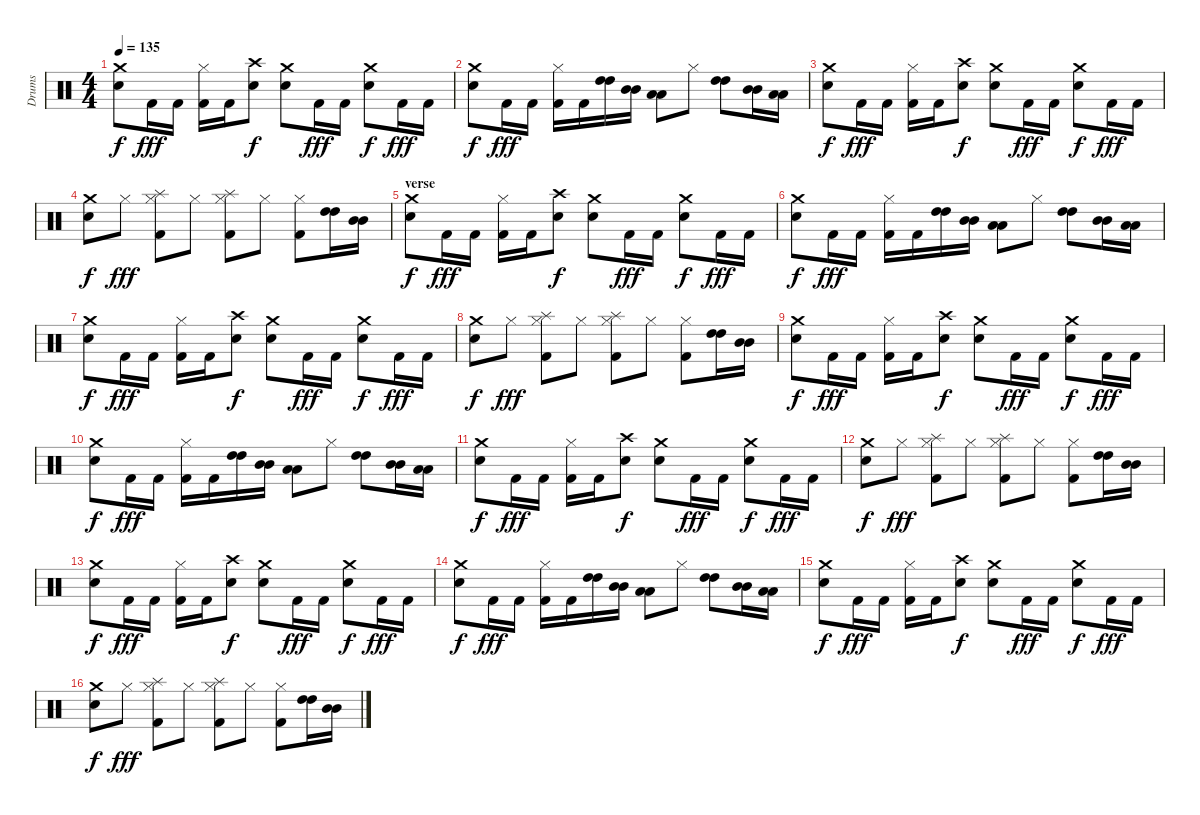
\track ("Drums" "Drums") {instrument percussion}
\staff {score}
\articulation defaults
\ts (4 4)
\tempo 135
\clef neutral
\ks c
("Crash medium (hit)" "Electric Snare (hit)").8{dy f} "Kick (hit) 2".16{dy fff} "Kick (hit) 2".16 ("Hi-Hat (closed)" "Kick (hit) 2").16 "Kick (hit) 2".16 ("Crash high (hit)" "Electric Snare (hit)").8{dy f} ("Crash medium (hit)" "Electric Snare (hit)").8 "Kick (hit) 2".16{dy fff} "Kick (hit) 2".16 ("Crash medium (hit)" "Electric Snare (hit)").8{dy f} "Kick (hit) 2".16{dy fff} "Kick (hit) 2".16 |
("Crash medium (hit)" "Electric Snare (hit)").8{dy f} "Kick (hit) 2".16{dy fff} "Kick (hit) 2".16 ("Hi-Hat (closed)" "Kick (hit) 2").16 "Kick (hit) 2".16 ("High Tom (hit)" "High Tom (hit)").16 ("Mid Tom (hit)" "Mid Tom (hit)").16 ("Low Tom (hit)" "Low Tom (hit)").8 "Hi-Hat (closed)".8 ("High Tom (hit)" "High Tom (hit)").8 ("Mid Tom (hit)" "Mid Tom (hit)").16 ("Low Tom (hit)" "Low Tom (hit)").16 |
("Crash medium (hit)" "Electric Snare (hit)").8{dy f} "Kick (hit) 2".16{dy fff} "Kick (hit) 2".16 ("Hi-Hat (closed)" "Kick (hit) 2").16 "Kick (hit) 2".16 ("Crash high (hit)" "Electric Snare (hit)").8{dy f} ("Crash medium (hit)" "Electric Snare (hit)").8 "Kick (hit) 2".16{dy fff} "Kick (hit) 2".16 ("Crash medium (hit)" "Electric Snare (hit)").8{dy f} "Kick (hit) 2".16{dy fff} "Kick (hit) 2".16 |
("Crash medium (hit)" "Electric Snare (hit)").8{dy f} "Hi-Hat (closed)".8{dy fff} ("Splash (hit)" "Kick (hit) 2" "Hi-Hat (closed)").8 "Hi-Hat (closed)".8 ("Splash (hit)" "Kick (hit) 2" "Hi-Hat (closed)").8 "Hi-Hat (closed)".8 ("Kick (hit) 2" "Hi-Hat (closed)").8 ("High Tom (hit)" "High Tom (hit)").16 ("Mid Tom (hit)" "Mid Tom (hit)").16 |
\section ("" "verse")
("Crash medium (hit)" "Electric Snare (hit)").8{dy f} "Kick (hit) 2".16{dy fff} "Kick (hit) 2".16 ("Hi-Hat (closed)" "Kick (hit) 2").16 "Kick (hit) 2".16 ("Crash high (hit)" "Electric Snare (hit)").8{dy f} ("Crash medium (hit)" "Electric Snare (hit)").8 "Kick (hit) 2".16{dy fff} "Kick (hit) 2".16 ("Crash medium (hit)" "Electric Snare (hit)").8{dy f} "Kick (hit) 2".16{dy fff} "Kick (hit) 2".16 |
("Crash medium (hit)" "Electric Snare (hit)").8{dy f} "Kick (hit) 2".16{dy fff} "Kick (hit) 2".16 ("Hi-Hat (closed)" "Kick (hit) 2").16 "Kick (hit) 2".16 ("High Tom (hit)" "High Tom (hit)").16 ("Mid Tom (hit)" "Mid Tom (hit)").16 ("Low Tom (hit)" "Low Tom (hit)").8 "Hi-Hat (closed)".8 ("High Tom (hit)" "High Tom (hit)").8 ("Mid Tom (hit)" "Mid Tom (hit)").16 ("Low Tom (hit)" "Low Tom (hit)").16 |
("Crash medium (hit)" "Electric Snare (hit)").8{dy f} "Kick (hit) 2".16{dy fff} "Kick (hit) 2".16 ("Hi-Hat (closed)" "Kick (hit) 2").16 "Kick (hit) 2".16 ("Crash high (hit)" "Electric Snare (hit)").8{dy f} ("Crash medium (hit)" "Electric Snare (hit)").8 "Kick (hit) 2".16{dy fff} "Kick (hit) 2".16 ("Crash medium (hit)" "Electric Snare (hit)").8{dy f} "Kick (hit) 2".16{dy fff} "Kick (hit) 2".16 |
("Crash medium (hit)" "Electric Snare (hit)").8{dy f} "Hi-Hat (closed)".8{dy fff} ("Splash (hit)" "Kick (hit) 2" "Hi-Hat (closed)").8 "Hi-Hat (closed)".8 ("Splash (hit)" "Kick (hit) 2" "Hi-Hat (closed)").8 "Hi-Hat (closed)".8 ("Kick (hit) 2" "Hi-Hat (closed)").8 ("High Tom (hit)" "High Tom (hit)").16 ("Mid Tom (hit)" "Mid Tom (hit)").16 |
("Crash medium (hit)" "Electric Snare (hit)").8{dy f} "Kick (hit) 2".16{dy fff} "Kick (hit) 2".16 ("Hi-Hat (closed)" "Kick (hit) 2").16 "Kick (hit) 2".16 ("Crash high (hit)" "Electric Snare (hit)").8{dy f} ("Crash medium (hit)" "Electric Snare (hit)").8 "Kick (hit) 2".16{dy fff} "Kick (hit) 2".16 ("Crash medium (hit)" "Electric Snare (hit)").8{dy f} "Kick (hit) 2".16{dy fff} "Kick (hit) 2".16 |
("Crash medium (hit)" "Electric Snare (hit)").8{dy f} "Kick (hit) 2".16{dy fff} "Kick (hit) 2".16 ("Hi-Hat (closed)" "Kick (hit) 2").16 "Kick (hit) 2".16 ("High Tom (hit)" "High Tom (hit)").16 ("Mid Tom (hit)" "Mid Tom (hit)").16 ("Low Tom (hit)" "Low Tom (hit)").8 "Hi-Hat (closed)".8 ("High Tom (hit)" "High Tom (hit)").8 ("Mid Tom (hit)" "Mid Tom (hit)").16 ("Low Tom (hit)" "Low Tom (hit)").16 |
("Crash medium (hit)" "Electric Snare (hit)").8{dy f} "Kick (hit) 2".16{dy fff} "Kick (hit) 2".16 ("Hi-Hat (closed)" "Kick (hit) 2").16 "Kick (hit) 2".16 ("Crash high (hit)" "Electric Snare (hit)").8{dy f} ("Crash medium (hit)" "Electric Snare (hit)").8 "Kick (hit) 2".16{dy fff} "Kick (hit) 2".16 ("Crash medium (hit)" "Electric Snare (hit)").8{dy f} "Kick (hit) 2".16{dy fff} "Kick (hit) 2".16 |
("Crash medium (hit)" "Electric Snare (hit)").8{dy f} "Hi-Hat (closed)".8{dy fff} ("Splash (hit)" "Kick (hit) 2" "Hi-Hat (closed)").8 "Hi-Hat (closed)".8 ("Splash (hit)" "Kick (hit) 2" "Hi-Hat (closed)").8 "Hi-Hat (closed)".8 ("Kick (hit) 2" "Hi-Hat (closed)").8 ("High Tom (hit)" "High Tom (hit)").16 ("Mid Tom (hit)" "Mid Tom (hit)").16 |
("Crash medium (hit)" "Electric Snare (hit)").8{dy f} "Kick (hit) 2".16{dy fff} "Kick (hit) 2".16 ("Hi-Hat (closed)" "Kick (hit) 2").16 "Kick (hit) 2".16 ("Crash high (hit)" "Electric Snare (hit)").8{dy f} ("Crash medium (hit)" "Electric Snare (hit)").8 "Kick (hit) 2".16{dy fff} "Kick (hit) 2".16 ("Crash medium (hit)" "Electric Snare (hit)").8{dy f} "Kick (hit) 2".16{dy fff} "Kick (hit) 2".16 |
("Crash medium (hit)" "Electric Snare (hit)").8{dy f} "Kick (hit) 2".16{dy fff} "Kick (hit) 2".16 ("Hi-Hat (closed)" "Kick (hit) 2").16 "Kick (hit) 2".16 ("High Tom (hit)" "High Tom (hit)").16 ("Mid Tom (hit)" "Mid Tom (hit)").16 ("Low Tom (hit)" "Low Tom (hit)").8 "Hi-Hat (closed)".8 ("High Tom (hit)" "High Tom (hit)").8 ("Mid Tom (hit)" "Mid Tom (hit)").16 ("Low Tom (hit)" "Low Tom (hit)").16 |
("Crash medium (hit)" "Electric Snare (hit)").8{dy f} "Kick (hit) 2".16{dy fff} "Kick (hit) 2".16 ("Hi-Hat (closed)" "Kick (hit) 2").16 "Kick (hit) 2".16 ("Crash high (hit)" "Electric Snare (hit)").8{dy f} ("Crash medium (hit)" "Electric Snare (hit)").8 "Kick (hit) 2".16{dy fff} "Kick (hit) 2".16 ("Crash medium (hit)" "Electric Snare (hit)").8{dy f} "Kick (hit) 2".16{dy fff} "Kick (hit) 2".16 |
("Crash medium (hit)" "Electric Snare (hit)").8{dy f} "Hi-Hat (closed)".8{dy fff} ("Splash (hit)" "Kick (hit) 2" "Hi-Hat (closed)").8 "Hi-Hat (closed)".8 ("Splash (hit)" "Kick (hit) 2" "Hi-Hat (closed)").8 "Hi-Hat (closed)".8 ("Kick (hit) 2" "Hi-Hat (closed)").8 ("High Tom (hit)" "High Tom (hit)").16 ("Mid Tom (hit)" "Mid Tom (hit)").16
